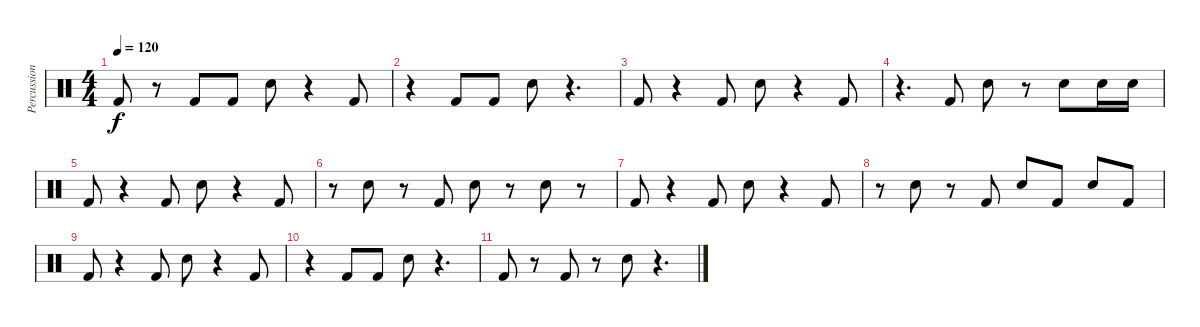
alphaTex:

\track ("Percussion" "Percussion") {instrument percussion}
\staff {score}
\articulation defaults
\ts (4 4)
\tempo 120
\clef neutral
\ks c "Kick (hit) 2".8{dy f}
r.8 "Kick (hit) 2".8 "Kick (hit) 2".8 "Snare (hit) 2".8 r.4 "Kick (hit) 2".8 |
r.4 "Kick (hit) 2".8 "Kick (hit) 2".8 "Snare (hit) 2".8 r.4{d} |
"Kick (hit) 2".8 r.4 "Kick (hit) 2".8 "Snare (hit) 2".8 r.4 "Kick (hit) 2".8 |
r.4{d} "Kick (hit) 2".8 "Snare (hit) 2".8 r.8 "Snare (hit) 2".8 "Snare (hit) 2".16 "Snare (hit) 2".16 |
"Kick (hit) 2".8 r.4 "Kick (hit) 2".8 "Snare (hit) 2".8 r.4 "Kick (hit) 2".8 |
r.8 "Snare (hit) 2".8 r.8 "Kick (hit) 2".8 "Snare (hit) 2".8 r.8 "Snare (hit) 2".8 r.8 |
"Kick (hit) 2".8 r.4 "Kick (hit) 2".8 "Snare (hit) 2".8 r.4 "Kick (hit) 2".8 |
r.8 "Snare (hit) 2".8 r.8 "Kick (hit) 2".8 "Snare (hit) 2".8 "Kick (hit) 2".8 "Snare (hit) 2".8 "Kick (hit) 2".8 |
"Kick (hit) 2".8 r.4 "Kick (hit) 2".8 "Snare (hit) 2".8 r.4 "Kick (hit) 2".8 |
r.4 "Kick (hit) 2".8 "Kick (hit) 2".8 "Snare (hit) 2".8 r.4{d} |
"Kick (hit) 2".8 r.8 "Kick (hit) 2".8 r.8 "Snare (hit) 2".8 r.4{d}
